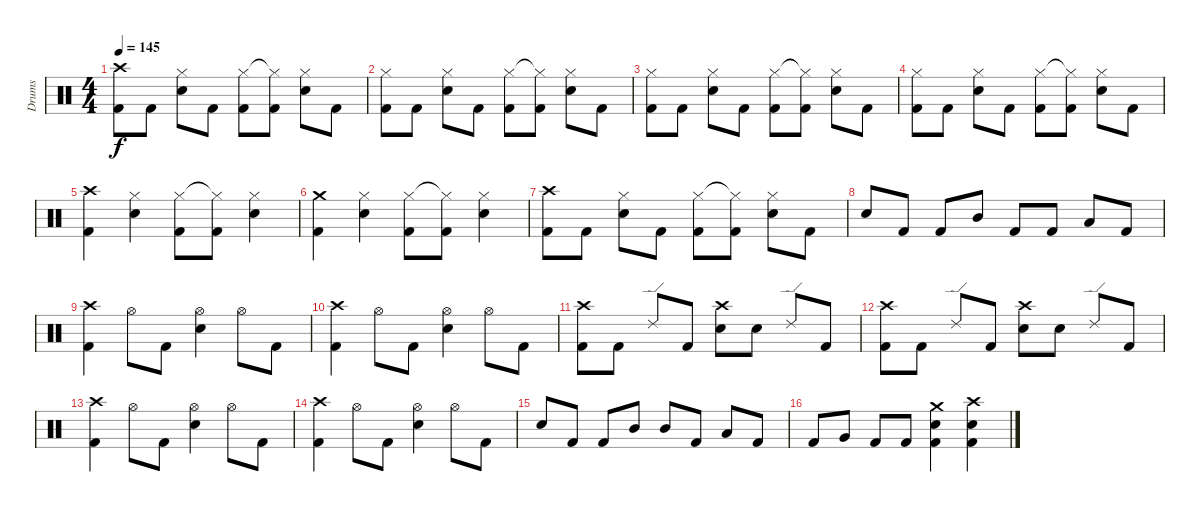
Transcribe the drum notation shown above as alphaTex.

\track ("Drums" "Drums") {instrument percussion}
\staff {score}
\articulation defaults
\ts (4 4)
\tempo 145
\clef neutral
\ks c
("Crash high (hit)" "Kick (hit) 2").8{dy f} "Kick (hit) 2".8 ("Hi-Hat (closed)" "Electric Snare (hit)").8 "Kick (hit) 2".8 ("Hi-Hat (closed)" "Kick (hit) 2").8 ("Hi-Hat (closed)"{t} "Kick (hit) 2").8 ("Hi-Hat (closed)" "Electric Snare (hit)").8 "Kick (hit) 2".8 |
("Hi-Hat (closed)" "Kick (hit) 2").8 "Kick (hit) 2".8 ("Hi-Hat (closed)" "Electric Snare (hit)").8 "Kick (hit) 2".8 ("Hi-Hat (closed)" "Kick (hit) 2").8 ("Hi-Hat (closed)"{t} "Kick (hit) 2").8 ("Hi-Hat (closed)" "Electric Snare (hit)").8 "Kick (hit) 2".8 |
("Hi-Hat (closed)" "Kick (hit) 2").8 "Kick (hit) 2".8 ("Hi-Hat (closed)" "Electric Snare (hit)").8 "Kick (hit) 2".8 ("Hi-Hat (closed)" "Kick (hit) 2").8 ("Hi-Hat (closed)"{t} "Kick (hit) 2").8 ("Hi-Hat (closed)" "Electric Snare (hit)").8 "Kick (hit) 2".8 |
("Hi-Hat (closed)" "Kick (hit) 2").8 "Kick (hit) 2".8 ("Hi-Hat (closed)" "Electric Snare (hit)").8 "Kick (hit) 2".8 ("Hi-Hat (closed)" "Kick (hit) 2").8 ("Hi-Hat (closed)"{t} "Kick (hit) 2").8 ("Hi-Hat (closed)" "Electric Snare (hit)").8 "Kick (hit) 2".8 |
("Crash high (hit)" "Kick (hit) 2").4 ("Hi-Hat (closed)" "Electric Snare (hit)").4 ("Hi-Hat (closed)" "Kick (hit) 2").8 ("Hi-Hat (closed)"{t} "Kick (hit) 2").8 ("Hi-Hat (closed)" "Electric Snare (hit)").4 |
("Crash medium (hit)" "Kick (hit) 2").4 ("Hi-Hat (closed)" "Electric Snare (hit)").4 ("Hi-Hat (closed)" "Kick (hit) 2").8 ("Hi-Hat (closed)"{t} "Kick (hit) 2").8 ("Hi-Hat (closed)" "Electric Snare (hit)").4 |
("Crash high (hit)" "Kick (hit) 2").8 "Kick (hit) 2".8 ("Hi-Hat (closed)" "Electric Snare (hit)").8 "Kick (hit) 2".8 ("Hi-Hat (closed)" "Kick (hit) 2").8 ("Hi-Hat (closed)"{t} "Kick (hit) 2").8 ("Hi-Hat (closed)" "Electric Snare (hit)").8 "Kick (hit) 2".8 |
"Electric Snare (hit)".8 "Kick (hit) 2".8 "Kick (hit) 2".8 "Mid Tom (hit)".8 "Kick (hit) 2".8 "Kick (hit) 2".8 "Low Tom (hit)".8 "Kick (hit) 2".8 |
("Crash high (hit)" "Kick (hit) 2").4 "Hi-Hat (open)".8 "Kick (hit) 2".8 ("Hi-Hat (open)" "Electric Snare (hit)").4 "Hi-Hat (open)".8 "Kick (hit) 2".8 |
("Crash high (hit)" "Kick (hit) 2").4 "Hi-Hat (open)".8 "Kick (hit) 2".8 ("Hi-Hat (open)" "Electric Snare (hit)").4 "Hi-Hat (open)".8 "Kick (hit) 2".8 |
("Crash high (hit)" "Kick (hit) 2").8 "Kick (hit) 2".8 "Ride (edge) 2".8 "Kick (hit) 2".8 ("Crash high (hit)" "Electric Snare (hit)").8 "Electric Snare (hit)".8 "Ride (edge) 2".8 "Kick (hit) 2".8 |
("Crash high (hit)" "Kick (hit) 2").8 "Kick (hit) 2".8 "Ride (edge) 2".8 "Kick (hit) 2".8 ("Crash high (hit)" "Electric Snare (hit)").8 "Electric Snare (hit)".8 "Ride (edge) 2".8 "Kick (hit) 2".8 |
("Crash high (hit)" "Kick (hit) 2").4 "Hi-Hat (open)".8 "Kick (hit) 2".8 ("Hi-Hat (open)" "Electric Snare (hit)").4 "Hi-Hat (open)".8 "Kick (hit) 2".8 |
("Crash high (hit)" "Kick (hit) 2").4 "Hi-Hat (open)".8 "Kick (hit) 2".8 ("Hi-Hat (open)" "Electric Snare (hit)").4 "Hi-Hat (open)".8 "Kick (hit) 2".8 |
"Electric Snare (hit)".8 "Kick (hit) 2".8 "Kick (hit) 2".8 "Mid Tom (hit)".8 "Mid Tom (hit)".8 "Kick (hit) 2".8 "Low Tom (hit)".8 "Kick (hit) 2".8 |
"Kick (hit) 2".8 "Very Low Tom (hit)".8 "Kick (hit) 2".8 "Kick (hit) 2".8 ("Crash medium (hit)" "Electric Snare (hit)" "Kick (hit) 2").4 ("Crash high (hit)" "Electric Snare (hit)" "Kick (hit) 2").4
